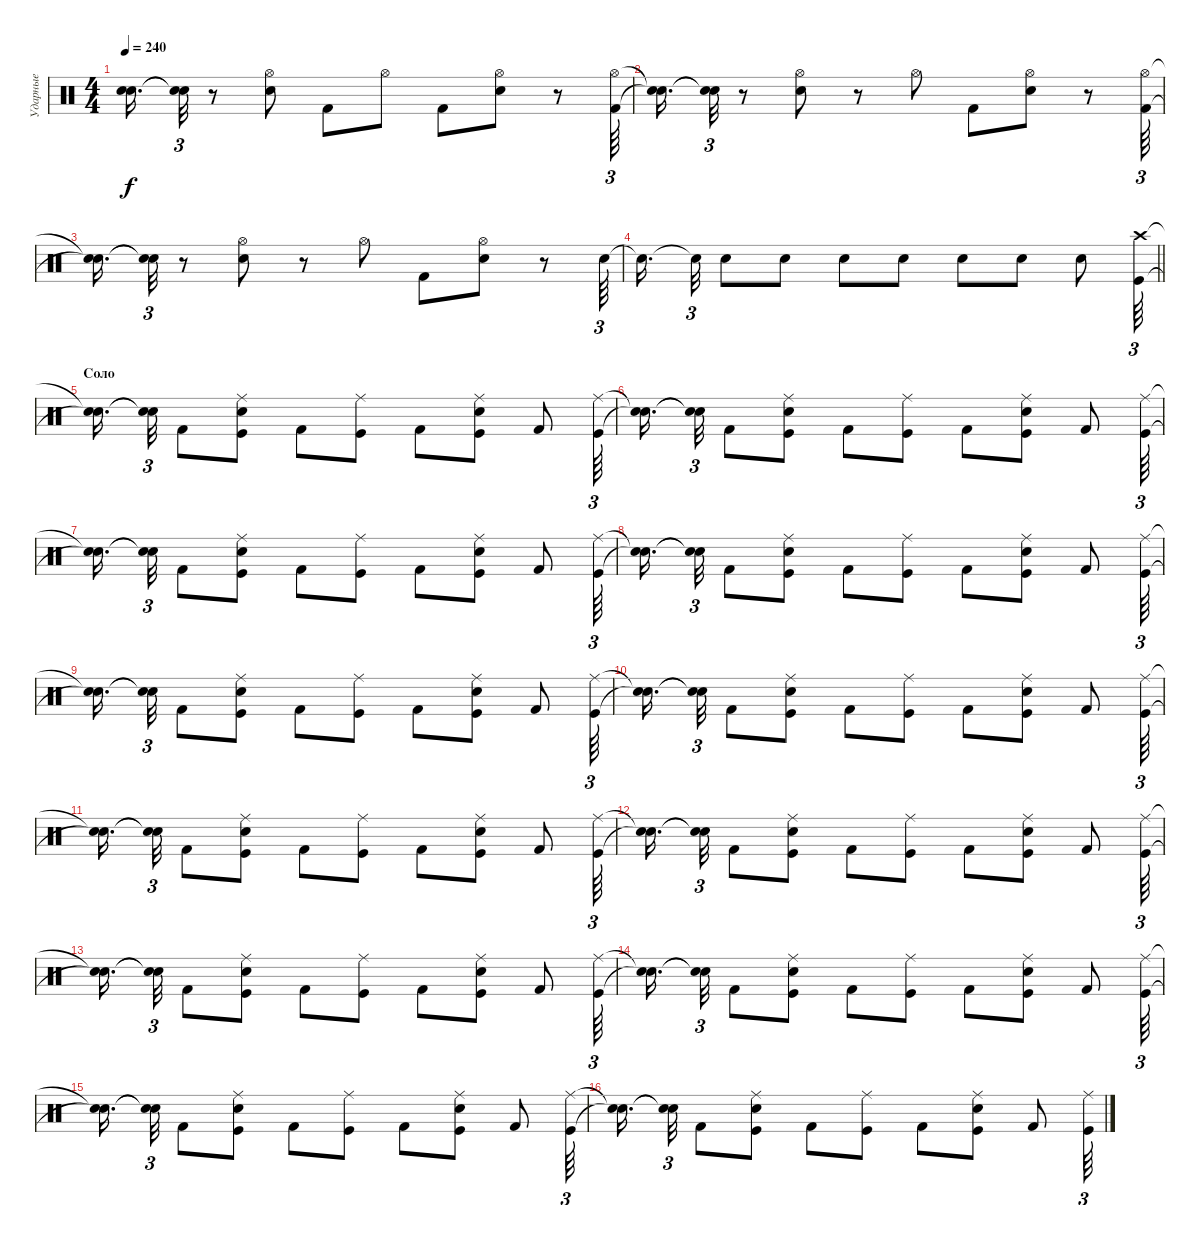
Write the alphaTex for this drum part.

\track ("Ударные" "Ударные") {instrument percussion}
\staff {score}
\articulation defaults
\ts (4 4)
\tempo 240
\clef neutral
\ks c
("Snare (hit)"{t} "Snare (hit)"{t}).16{d dy f} ("Snare (hit)"{t} "Snare (hit)"{t}).32{tu (3 2)} r.8 ("Snare (hit) 2" "Hi-Hat (open)").8 "Kick (hit) 2".8 "Hi-Hat (open)".8 "Kick (hit) 2".8 ("Snare (hit) 2" "Hi-Hat (open)").8 r.8 ("Hi-Hat (open)" "Kick (hit) 2").64{tu (3 2)} |
("Snare (hit)"{t} "Snare (hit)"{t}).16{d} ("Snare (hit)"{t} "Snare (hit)"{t}).32{tu (3 2)} r.8 ("Snare (hit) 2" "Hi-Hat (open)").8 r.8 "Hi-Hat (open)".8 "Kick (hit) 2".8 ("Snare (hit) 2" "Hi-Hat (open)").8 r.8 ("Hi-Hat (open)" "Kick (hit) 2").64{tu (3 2)} |
("Snare (hit)"{t} "Snare (hit)"{t}).16{d} ("Snare (hit)"{t} "Snare (hit)"{t}).32{tu (3 2)} r.8 ("Hi-Hat (open)" "Snare (hit) 2").8 r.8 "Hi-Hat (open)".8 "Kick (hit) 2".8 ("Hi-Hat (open)" "Snare (hit) 2").8 r.8 "Snare (hit) 2".64{tu (3 2)} |
\barLineRight lightlight "Snare (hit)"{t}.16{d} "Snare (hit)"{t}.32{tu (3 2)} "Snare (hit) 2".8 "Snare (hit) 2".8 "Snare (hit) 2".8 "Snare (hit) 2".8 "Snare (hit) 2".8 "Snare (hit) 2".8 "Snare (hit) 2".8
("Crash high (hit)" "Kick (hit)").64{tu (3 2)} |
\section ("" "Соло")
("Snare (hit)"{t} "Snare (hit)"{t}).16{d} ("Snare (hit)"{t} "Snare (hit)"{t}).32{tu (3 2)} "Kick (hit) 2".8 ("Kick (hit)" "Ride (middle)" "Snare (hit) 2").8 "Kick (hit) 2".8 ("Kick (hit)" "Ride (middle)").8 "Kick (hit) 2".8 ("Ride (middle)" "Snare (hit) 2" "Kick (hit)").8 "Kick (hit) 2".8 ("Ride (middle)" "Kick (hit)").64{tu (3 2)} |
("Snare (hit)"{t} "Snare (hit)"{t}).16{d} ("Snare (hit)"{t} "Snare (hit)"{t}).32{tu (3 2)} "Kick (hit) 2".8 ("Ride (middle)" "Kick (hit)" "Snare (hit) 2").8 "Kick (hit) 2".8 ("Kick (hit)" "Ride (middle)").8 "Kick (hit) 2".8 ("Snare (hit) 2" "Kick (hit)" "Ride (middle)").8 "Kick (hit) 2".8 ("Kick (hit)" "Ride (middle)").64{tu (3 2)} |
("Snare (hit)"{t} "Snare (hit)"{t}).16{d} ("Snare (hit)"{t} "Snare (hit)"{t}).32{tu (3 2)} "Kick (hit) 2".8 ("Ride (middle)" "Kick (hit)" "Snare (hit) 2").8 "Kick (hit) 2".8 ("Ride (middle)" "Kick (hit)").8 "Kick (hit) 2".8 ("Snare (hit) 2" "Kick (hit)" "Ride (middle)").8 "Kick (hit) 2".8 ("Kick (hit)" "Ride (middle)").64{tu (3 2)} |
("Snare (hit)"{t} "Snare (hit)"{t}).16{d} ("Snare (hit)"{t} "Snare (hit)"{t}).32{tu (3 2)} "Kick (hit) 2".8 ("Ride (middle)" "Snare (hit) 2" "Kick (hit)").8 "Kick (hit) 2".8 ("Kick (hit)" "Ride (middle)").8 "Kick (hit) 2".8 ("Snare (hit) 2" "Ride (middle)" "Kick (hit)").8 "Kick (hit) 2".8 ("Ride (middle)" "Kick (hit)").64{tu (3 2)} |
("Snare (hit)"{t} "Snare (hit)"{t}).16{d} ("Snare (hit)"{t} "Snare (hit)"{t}).32{tu (3 2)} "Kick (hit) 2".8 ("Kick (hit)" "Ride (middle)" "Snare (hit) 2").8 "Kick (hit) 2".8 ("Kick (hit)" "Ride (middle)").8 "Kick (hit) 2".8 ("Snare (hit) 2" "Ride (middle)" "Kick (hit)").8 "Kick (hit) 2".8 ("Kick (hit)" "Ride (middle)").64{tu (3 2)} |
("Snare (hit)"{t} "Snare (hit)"{t}).16{d} ("Snare (hit)"{t} "Snare (hit)"{t}).32{tu (3 2)} "Kick (hit) 2".8 ("Snare (hit) 2" "Kick (hit)" "Ride (middle)").8 "Kick (hit) 2".8 ("Ride (middle)" "Kick (hit)").8 "Kick (hit) 2".8 ("Ride (middle)" "Snare (hit) 2" "Kick (hit)").8 "Kick (hit) 2".8 ("Kick (hit)" "Ride (middle)").64{tu (3 2)} |
("Snare (hit)"{t} "Snare (hit)"{t}).16{d} ("Snare (hit)"{t} "Snare (hit)"{t}).32{tu (3 2)} "Kick (hit) 2".8 ("Ride (middle)" "Snare (hit) 2" "Kick (hit)").8 "Kick (hit) 2".8 ("Ride (middle)" "Kick (hit)").8 "Kick (hit) 2".8 ("Snare (hit) 2" "Ride (middle)" "Kick (hit)").8 "Kick (hit) 2".8 ("Kick (hit)" "Ride (middle)").64{tu (3 2)} |
("Snare (hit)"{t} "Snare (hit)"{t}).16{d} ("Snare (hit)"{t} "Snare (hit)"{t}).32{tu (3 2)} "Kick (hit) 2".8 ("Ride (middle)" "Snare (hit) 2" "Kick (hit)").8 "Kick (hit) 2".8 ("Kick (hit)" "Ride (middle)").8 "Kick (hit) 2".8 ("Snare (hit) 2" "Ride (middle)" "Kick (hit)").8 "Kick (hit) 2".8 ("Ride (middle)" "Kick (hit)").64{tu (3 2)} |
("Snare (hit)"{t} "Snare (hit)"{t}).16{d} ("Snare (hit)"{t} "Snare (hit)"{t}).32{tu (3 2)} "Kick (hit) 2".8 ("Snare (hit) 2" "Kick (hit)" "Ride (middle)").8 "Kick (hit) 2".8 ("Ride (middle)" "Kick (hit)").8 "Kick (hit) 2".8 ("Ride (middle)" "Kick (hit)" "Snare (hit) 2").8 "Kick (hit) 2".8 ("Kick (hit)" "Ride (middle)").64{tu (3 2)} |
("Snare (hit)"{t} "Snare (hit)"{t}).16{d} ("Snare (hit)"{t} "Snare (hit)"{t}).32{tu (3 2)} "Kick (hit) 2".8 ("Snare (hit) 2" "Ride (middle)" "Kick (hit)").8 "Kick (hit) 2".8 ("Ride (middle)" "Kick (hit)").8 "Kick (hit) 2".8 ("Snare (hit) 2" "Kick (hit)" "Ride (middle)").8 "Kick (hit) 2".8 ("Ride (middle)" "Kick (hit)").64{tu (3 2)} |
("Snare (hit)"{t} "Snare (hit)"{t}).16{d} ("Snare (hit)"{t} "Snare (hit)"{t}).32{tu (3 2)} "Kick (hit) 2".8 ("Kick (hit)" "Snare (hit) 2" "Ride (middle)").8 "Kick (hit) 2".8 ("Kick (hit)" "Ride (middle)").8 "Kick (hit) 2".8 ("Ride (middle)" "Kick (hit)" "Snare (hit) 2").8 "Kick (hit) 2".8 ("Ride (middle)" "Kick (hit)").64{tu (3 2)} |
("Snare (hit)"{t} "Snare (hit)"{t}).16{d} ("Snare (hit)"{t} "Snare (hit)"{t}).32{tu (3 2)} "Kick (hit) 2".8 ("Snare (hit) 2" "Kick (hit)" "Ride (middle)").8 "Kick (hit) 2".8 ("Kick (hit)" "Ride (middle)").8 "Kick (hit) 2".8 ("Ride (middle)" "Snare (hit) 2" "Kick (hit)").8 "Kick (hit) 2".8 ("Kick (hit)" "Ride (middle)").64{tu (3 2)}
